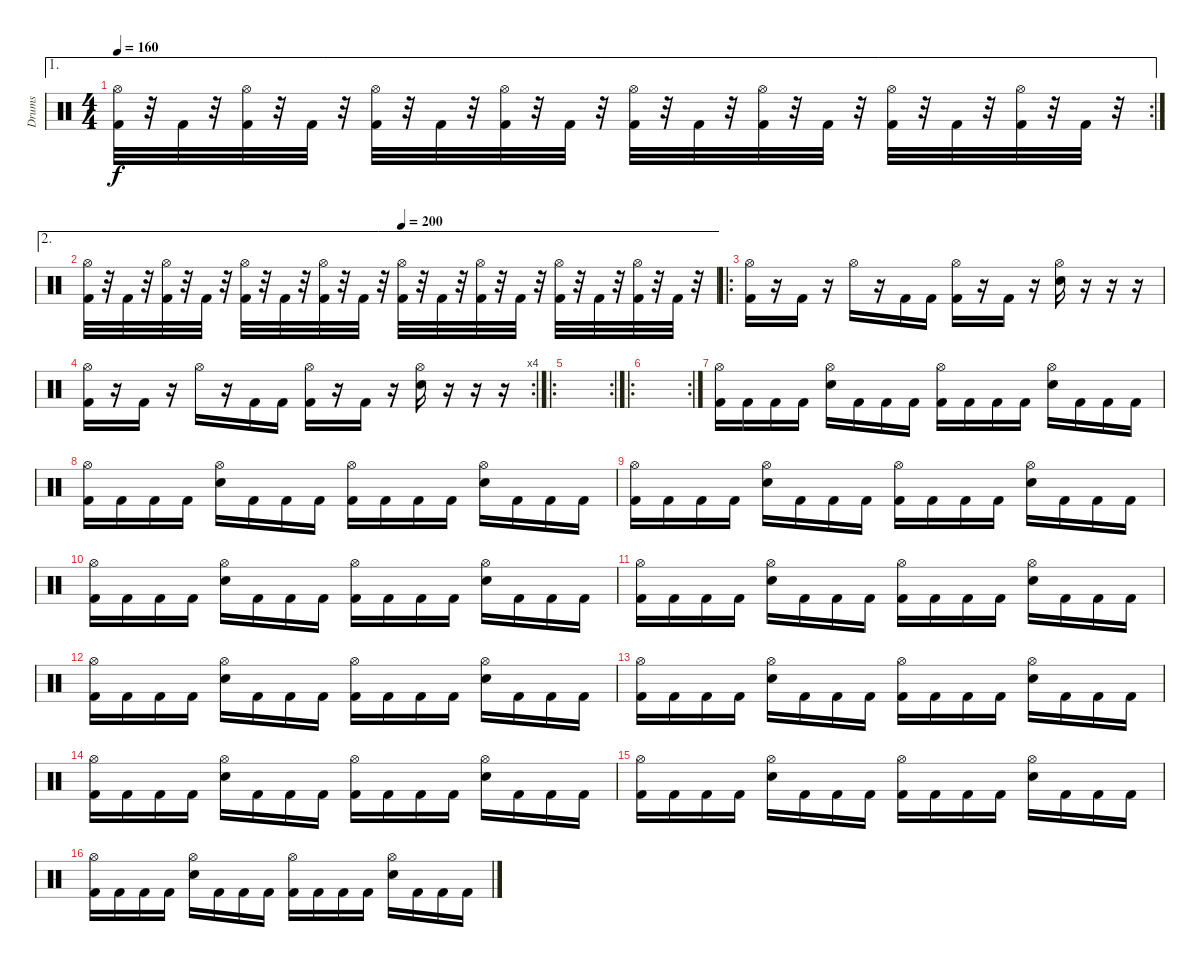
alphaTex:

\track ("Drums" "Drums") {instrument percussion}
\staff {score}
\articulation defaults
\ae 1
\rc 2
\ts (4 4)
\tempo 160
\clef neutral
\ks c
("Hi-Hat (open)" "Kick (hit) 2").32{dy f} r.32 "Kick (hit) 2".32 r.32 ("Hi-Hat (open)" "Kick (hit) 2").32 r.32 "Kick (hit) 2".32 r.32 ("Hi-Hat (open)" "Kick (hit) 2").32 r.32 "Kick (hit) 2".32 r.32 ("Hi-Hat (open)" "Kick (hit) 2").32 r.32 "Kick (hit) 2".32 r.32 ("Hi-Hat (open)" "Kick (hit) 2").32 r.32 "Kick (hit) 2".32 r.32 ("Hi-Hat (open)" "Kick (hit) 2").32 r.32 "Kick (hit) 2".32 r.32 ("Hi-Hat (open)" "Kick (hit) 2").32 r.32 "Kick (hit) 2".32 r.32 ("Hi-Hat (open)" "Kick (hit) 2").32 r.32 "Kick (hit) 2".32 r.32 |
\ae 2
\tempo (200 0.5)
("Hi-Hat (open)" "Kick (hit) 2").32 r.32 "Kick (hit) 2".32 r.32 ("Hi-Hat (open)" "Kick (hit) 2").32 r.32 "Kick (hit) 2".32 r.32 ("Hi-Hat (open)" "Kick (hit) 2").32 r.32 "Kick (hit) 2".32 r.32 ("Hi-Hat (open)" "Kick (hit) 2").32 r.32 "Kick (hit) 2".32 r.32 ("Hi-Hat (open)" "Kick (hit) 2").32 r.32 "Kick (hit) 2".32 r.32 ("Hi-Hat (open)" "Kick (hit) 2").32 r.32 "Kick (hit) 2".32 r.32 ("Hi-Hat (open)" "Kick (hit) 2").32 r.32 "Kick (hit) 2".32 r.32 ("Hi-Hat (open)" "Kick (hit) 2").32 r.32 "Kick (hit) 2".32 r.32 |
\ro
("Hi-Hat (open)" "Kick (hit) 2").16 r.16 "Kick (hit) 2".16 r.16 "Hi-Hat (open)".16 r.16 "Kick (hit) 2".16 "Kick (hit) 2".16 ("Hi-Hat (open)" "Kick (hit) 2").16 r.16 "Kick (hit) 2".16 r.16 ("Hi-Hat (open)" "Snare (hit) 2").16 r.16 r.16 r.16 |
\rc 4
("Hi-Hat (open)" "Kick (hit) 2").16 r.16 "Kick (hit) 2".16 r.16 "Hi-Hat (open)".16 r.16 "Kick (hit) 2".16 "Kick (hit) 2".16 ("Hi-Hat (open)" "Kick (hit) 2").16 r.16 "Kick (hit) 2".16 r.16 ("Hi-Hat (open)" "Snare (hit) 2").16 r.16 r.16 r.16 |
\ro
\rc 2
|
\ro
\rc 2
|
("Hi-Hat (open)" "Kick (hit) 2").16 "Kick (hit) 2".16 "Kick (hit) 2".16 "Kick (hit) 2".16 ("Hi-Hat (open)" "Snare (hit) 2").16 "Kick (hit) 2".16 "Kick (hit) 2".16 "Kick (hit) 2".16 ("Hi-Hat (open)" "Kick (hit) 2").16 "Kick (hit) 2".16 "Kick (hit) 2".16 "Kick (hit) 2".16 ("Hi-Hat (open)" "Snare (hit) 2").16 "Kick (hit) 2".16 "Kick (hit) 2".16 "Kick (hit) 2".16 |
("Hi-Hat (open)" "Kick (hit) 2").16 "Kick (hit) 2".16 "Kick (hit) 2".16 "Kick (hit) 2".16 ("Hi-Hat (open)" "Snare (hit) 2").16 "Kick (hit) 2".16 "Kick (hit) 2".16 "Kick (hit) 2".16 ("Hi-Hat (open)" "Kick (hit) 2").16 "Kick (hit) 2".16 "Kick (hit) 2".16 "Kick (hit) 2".16 ("Hi-Hat (open)" "Snare (hit) 2").16 "Kick (hit) 2".16 "Kick (hit) 2".16 "Kick (hit) 2".16 |
("Hi-Hat (open)" "Kick (hit) 2").16 "Kick (hit) 2".16 "Kick (hit) 2".16 "Kick (hit) 2".16 ("Hi-Hat (open)" "Snare (hit) 2").16 "Kick (hit) 2".16 "Kick (hit) 2".16 "Kick (hit) 2".16 ("Hi-Hat (open)" "Kick (hit) 2").16 "Kick (hit) 2".16 "Kick (hit) 2".16 "Kick (hit) 2".16 ("Hi-Hat (open)" "Snare (hit) 2").16 "Kick (hit) 2".16 "Kick (hit) 2".16 "Kick (hit) 2".16 |
("Hi-Hat (open)" "Kick (hit) 2").16 "Kick (hit) 2".16 "Kick (hit) 2".16 "Kick (hit) 2".16 ("Hi-Hat (open)" "Snare (hit) 2").16 "Kick (hit) 2".16 "Kick (hit) 2".16 "Kick (hit) 2".16 ("Hi-Hat (open)" "Kick (hit) 2").16 "Kick (hit) 2".16 "Kick (hit) 2".16 "Kick (hit) 2".16 ("Hi-Hat (open)" "Snare (hit) 2").16 "Kick (hit) 2".16 "Kick (hit) 2".16 "Kick (hit) 2".16 |
("Hi-Hat (open)" "Kick (hit) 2").16 "Kick (hit) 2".16 "Kick (hit) 2".16 "Kick (hit) 2".16 ("Hi-Hat (open)" "Snare (hit) 2").16 "Kick (hit) 2".16 "Kick (hit) 2".16 "Kick (hit) 2".16 ("Hi-Hat (open)" "Kick (hit) 2").16 "Kick (hit) 2".16 "Kick (hit) 2".16 "Kick (hit) 2".16 ("Hi-Hat (open)" "Snare (hit) 2").16 "Kick (hit) 2".16 "Kick (hit) 2".16 "Kick (hit) 2".16 |
("Hi-Hat (open)" "Kick (hit) 2").16 "Kick (hit) 2".16 "Kick (hit) 2".16 "Kick (hit) 2".16 ("Hi-Hat (open)" "Snare (hit) 2").16 "Kick (hit) 2".16 "Kick (hit) 2".16 "Kick (hit) 2".16 ("Hi-Hat (open)" "Kick (hit) 2").16 "Kick (hit) 2".16 "Kick (hit) 2".16 "Kick (hit) 2".16 ("Hi-Hat (open)" "Snare (hit) 2").16 "Kick (hit) 2".16 "Kick (hit) 2".16 "Kick (hit) 2".16 |
("Hi-Hat (open)" "Kick (hit) 2").16 "Kick (hit) 2".16 "Kick (hit) 2".16 "Kick (hit) 2".16 ("Hi-Hat (open)" "Snare (hit) 2").16 "Kick (hit) 2".16 "Kick (hit) 2".16 "Kick (hit) 2".16 ("Hi-Hat (open)" "Kick (hit) 2").16 "Kick (hit) 2".16 "Kick (hit) 2".16 "Kick (hit) 2".16 ("Hi-Hat (open)" "Snare (hit) 2").16 "Kick (hit) 2".16 "Kick (hit) 2".16 "Kick (hit) 2".16 |
("Hi-Hat (open)" "Kick (hit) 2").16 "Kick (hit) 2".16 "Kick (hit) 2".16 "Kick (hit) 2".16 ("Hi-Hat (open)" "Snare (hit) 2").16 "Kick (hit) 2".16 "Kick (hit) 2".16 "Kick (hit) 2".16 ("Hi-Hat (open)" "Kick (hit) 2").16 "Kick (hit) 2".16 "Kick (hit) 2".16 "Kick (hit) 2".16 ("Hi-Hat (open)" "Snare (hit) 2").16 "Kick (hit) 2".16 "Kick (hit) 2".16 "Kick (hit) 2".16 |
("Hi-Hat (open)" "Kick (hit) 2").16 "Kick (hit) 2".16 "Kick (hit) 2".16 "Kick (hit) 2".16 ("Hi-Hat (open)" "Snare (hit) 2").16 "Kick (hit) 2".16 "Kick (hit) 2".16 "Kick (hit) 2".16 ("Hi-Hat (open)" "Kick (hit) 2").16 "Kick (hit) 2".16 "Kick (hit) 2".16 "Kick (hit) 2".16 ("Hi-Hat (open)" "Snare (hit) 2").16 "Kick (hit) 2".16 "Kick (hit) 2".16 "Kick (hit) 2".16 |
("Hi-Hat (open)" "Kick (hit) 2").16 "Kick (hit) 2".16 "Kick (hit) 2".16 "Kick (hit) 2".16 ("Hi-Hat (open)" "Snare (hit) 2").16 "Kick (hit) 2".16 "Kick (hit) 2".16 "Kick (hit) 2".16 ("Hi-Hat (open)" "Kick (hit) 2").16 "Kick (hit) 2".16 "Kick (hit) 2".16 "Kick (hit) 2".16 ("Hi-Hat (open)" "Snare (hit) 2").16 "Kick (hit) 2".16 "Kick (hit) 2".16 "Kick (hit) 2".16
